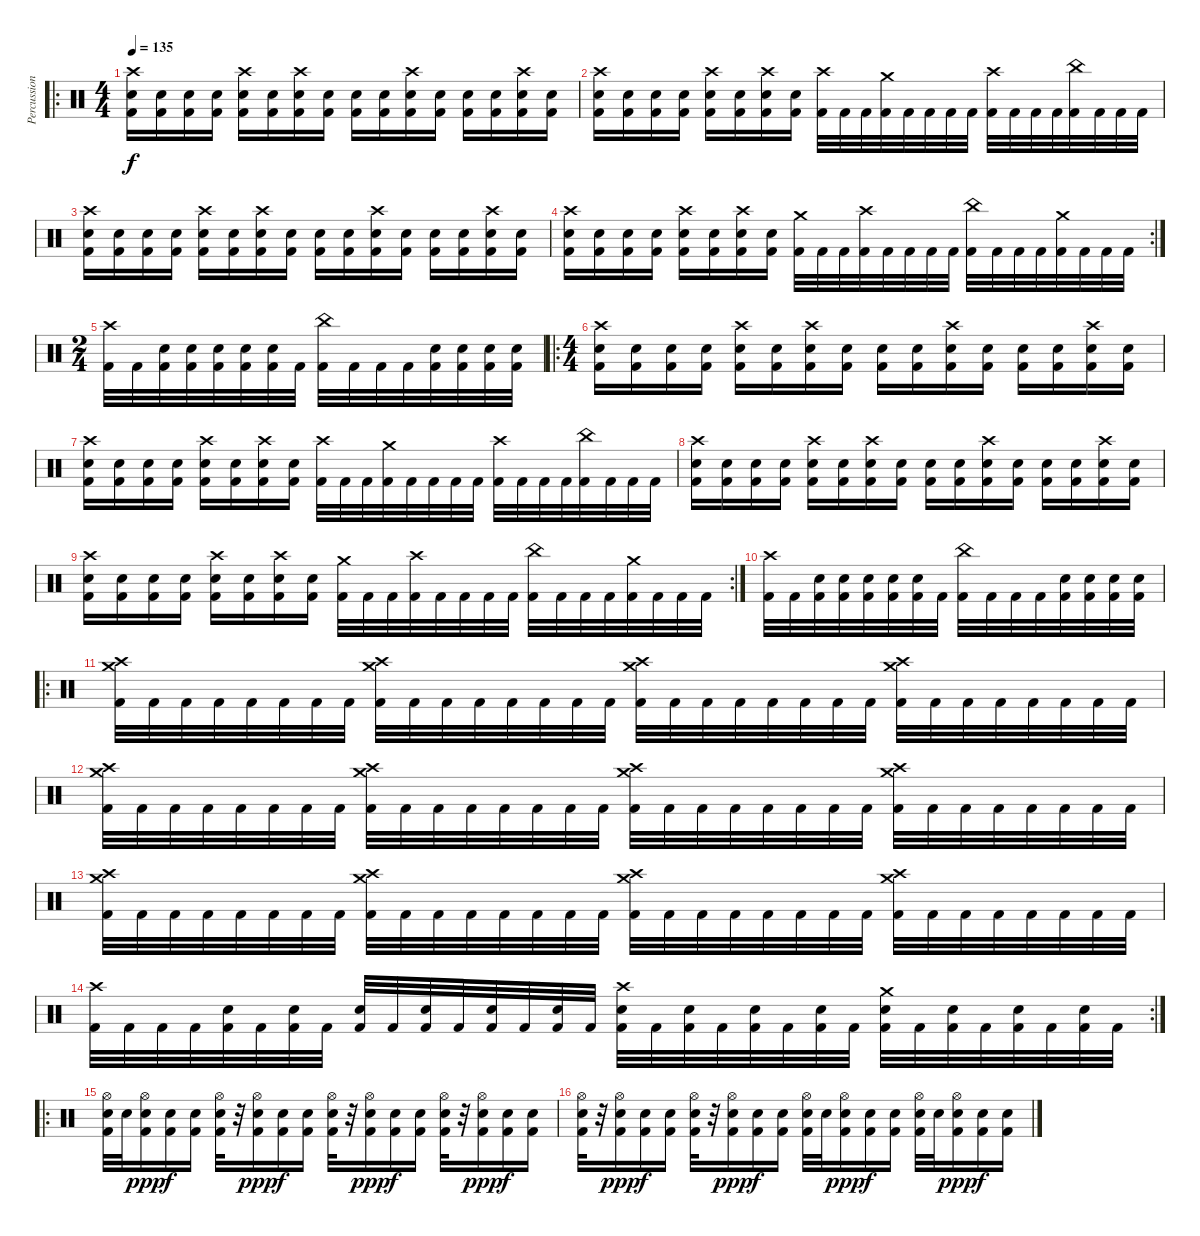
\track ("Percussion" "Percussion") {instrument percussion}
\staff {score}
\articulation defaults
\ro
\ts (4 4)
\tempo 135
\clef neutral
\ks c
("Crash high (hit)" "Electric Snare (hit)" "Kick (hit) 2").16{dy f} ("Electric Snare (hit)" "Kick (hit) 2").16 ("Electric Snare (hit)" "Kick (hit) 2").16 ("Electric Snare (hit)" "Kick (hit) 2").16 ("Crash high (hit)" "Electric Snare (hit)" "Kick (hit) 2").16 ("Electric Snare (hit)" "Kick (hit) 2").16 ("Crash high (hit)" "Electric Snare (hit)" "Kick (hit) 2").16 ("Electric Snare (hit)" "Kick (hit) 2").16 ("Electric Snare (hit)" "Kick (hit) 2").16 ("Electric Snare (hit)" "Kick (hit) 2").16 ("Crash high (hit)" "Electric Snare (hit)" "Kick (hit) 2").16 ("Electric Snare (hit)" "Kick (hit) 2").16 ("Electric Snare (hit)" "Kick (hit) 2").16 ("Electric Snare (hit)" "Kick (hit) 2").16 ("Crash high (hit)" "Electric Snare (hit)" "Kick (hit) 2").16 ("Electric Snare (hit)" "Kick (hit) 2").16 |
("Crash high (hit)" "Electric Snare (hit)" "Kick (hit) 2").16 ("Electric Snare (hit)" "Kick (hit) 2").16 ("Electric Snare (hit)" "Kick (hit) 2").16 ("Electric Snare (hit)" "Kick (hit) 2").16 ("Crash high (hit)" "Electric Snare (hit)" "Kick (hit) 2").16 ("Electric Snare (hit)" "Kick (hit) 2").16 ("Crash high (hit)" "Electric Snare (hit)" "Kick (hit) 2").16 ("Electric Snare (hit)" "Kick (hit) 2").16 ("Crash high (hit)" "Kick (hit) 2").32 "Kick (hit) 2".32 "Kick (hit) 2".32 ("Crash medium (hit)" "Kick (hit) 2").32 "Kick (hit) 2".32 "Kick (hit) 2".32 "Kick (hit) 2".32 "Kick (hit) 2".32 ("Crash high (hit)" "Kick (hit) 2").32 "Kick (hit) 2".32 "Kick (hit) 2".32 "Kick (hit) 2".32 ("China (hit)" "Kick (hit) 2").32 "Kick (hit) 2".32 "Kick (hit) 2".32 "Kick (hit) 2".32 |
("Crash high (hit)" "Electric Snare (hit)" "Kick (hit) 2").16 ("Electric Snare (hit)" "Kick (hit) 2").16 ("Electric Snare (hit)" "Kick (hit) 2").16 ("Electric Snare (hit)" "Kick (hit) 2").16 ("Crash high (hit)" "Electric Snare (hit)" "Kick (hit) 2").16 ("Electric Snare (hit)" "Kick (hit) 2").16 ("Crash high (hit)" "Electric Snare (hit)" "Kick (hit) 2").16 ("Electric Snare (hit)" "Kick (hit) 2").16 ("Electric Snare (hit)" "Kick (hit) 2").16 ("Electric Snare (hit)" "Kick (hit) 2").16 ("Crash high (hit)" "Electric Snare (hit)" "Kick (hit) 2").16 ("Electric Snare (hit)" "Kick (hit) 2").16 ("Electric Snare (hit)" "Kick (hit) 2").16 ("Electric Snare (hit)" "Kick (hit) 2").16 ("Crash high (hit)" "Electric Snare (hit)" "Kick (hit) 2").16 ("Electric Snare (hit)" "Kick (hit) 2").16 |
\rc 2
("Crash high (hit)" "Electric Snare (hit)" "Kick (hit) 2").16 ("Electric Snare (hit)" "Kick (hit) 2").16 ("Electric Snare (hit)" "Kick (hit) 2").16 ("Electric Snare (hit)" "Kick (hit) 2").16 ("Crash high (hit)" "Electric Snare (hit)" "Kick (hit) 2").16 ("Electric Snare (hit)" "Kick (hit) 2").16 ("Crash high (hit)" "Electric Snare (hit)" "Kick (hit) 2").16 ("Electric Snare (hit)" "Kick (hit) 2").16 ("Crash medium (hit)" "Kick (hit) 2").32 "Kick (hit) 2".32 "Kick (hit) 2".32 ("Crash high (hit)" "Kick (hit) 2").32 "Kick (hit) 2".32 "Kick (hit) 2".32 "Kick (hit) 2".32 "Kick (hit) 2".32 ("China (hit)" "Kick (hit) 2").32 "Kick (hit) 2".32 "Kick (hit) 2".32 "Kick (hit) 2".32 ("Crash medium (hit)" "Kick (hit) 2").32 "Kick (hit) 2".32 "Kick (hit) 2".32 "Kick (hit) 2".32 |
\ts (2 4)
("Crash high (hit)" "Kick (hit) 2").32 "Kick (hit) 2".32 ("Electric Snare (hit)" "Kick (hit) 2").32 ("Electric Snare (hit)" "Kick (hit) 2").32 ("Electric Snare (hit)" "Kick (hit) 2").32 ("Electric Snare (hit)" "Kick (hit) 2").32 ("Electric Snare (hit)" "Kick (hit) 2").32 "Kick (hit) 2".32 ("China (hit)" "Kick (hit) 2").32 "Kick (hit) 2".32 "Kick (hit) 2".32 "Kick (hit) 2".32 ("Electric Snare (hit)" "Kick (hit) 2").32 ("Electric Snare (hit)" "Kick (hit) 2").32 ("Electric Snare (hit)" "Kick (hit) 2").32 ("Electric Snare (hit)" "Kick (hit) 2").32 |
\ro
\ts (4 4)
("Crash high (hit)" "Electric Snare (hit)" "Kick (hit) 2").16 ("Electric Snare (hit)" "Kick (hit) 2").16 ("Electric Snare (hit)" "Kick (hit) 2").16 ("Electric Snare (hit)" "Kick (hit) 2").16 ("Crash high (hit)" "Electric Snare (hit)" "Kick (hit) 2").16 ("Electric Snare (hit)" "Kick (hit) 2").16 ("Crash high (hit)" "Electric Snare (hit)" "Kick (hit) 2").16 ("Electric Snare (hit)" "Kick (hit) 2").16 ("Electric Snare (hit)" "Kick (hit) 2").16 ("Electric Snare (hit)" "Kick (hit) 2").16 ("Crash high (hit)" "Electric Snare (hit)" "Kick (hit) 2").16 ("Electric Snare (hit)" "Kick (hit) 2").16 ("Electric Snare (hit)" "Kick (hit) 2").16 ("Electric Snare (hit)" "Kick (hit) 2").16 ("Crash high (hit)" "Electric Snare (hit)" "Kick (hit) 2").16 ("Electric Snare (hit)" "Kick (hit) 2").16 |
("Crash high (hit)" "Electric Snare (hit)" "Kick (hit) 2").16 ("Electric Snare (hit)" "Kick (hit) 2").16 ("Electric Snare (hit)" "Kick (hit) 2").16 ("Electric Snare (hit)" "Kick (hit) 2").16 ("Crash high (hit)" "Electric Snare (hit)" "Kick (hit) 2").16 ("Electric Snare (hit)" "Kick (hit) 2").16 ("Crash high (hit)" "Electric Snare (hit)" "Kick (hit) 2").16 ("Electric Snare (hit)" "Kick (hit) 2").16 ("Crash high (hit)" "Kick (hit) 2").32 "Kick (hit) 2".32 "Kick (hit) 2".32 ("Crash medium (hit)" "Kick (hit) 2").32 "Kick (hit) 2".32 "Kick (hit) 2".32 "Kick (hit) 2".32 "Kick (hit) 2".32 ("Crash high (hit)" "Kick (hit) 2").32 "Kick (hit) 2".32 "Kick (hit) 2".32 "Kick (hit) 2".32 ("China (hit)" "Kick (hit) 2").32 "Kick (hit) 2".32 "Kick (hit) 2".32 "Kick (hit) 2".32 |
("Crash high (hit)" "Electric Snare (hit)" "Kick (hit) 2").16 ("Electric Snare (hit)" "Kick (hit) 2").16 ("Electric Snare (hit)" "Kick (hit) 2").16 ("Electric Snare (hit)" "Kick (hit) 2").16 ("Crash high (hit)" "Electric Snare (hit)" "Kick (hit) 2").16 ("Electric Snare (hit)" "Kick (hit) 2").16 ("Crash high (hit)" "Electric Snare (hit)" "Kick (hit) 2").16 ("Electric Snare (hit)" "Kick (hit) 2").16 ("Electric Snare (hit)" "Kick (hit) 2").16 ("Electric Snare (hit)" "Kick (hit) 2").16 ("Crash high (hit)" "Electric Snare (hit)" "Kick (hit) 2").16 ("Electric Snare (hit)" "Kick (hit) 2").16 ("Electric Snare (hit)" "Kick (hit) 2").16 ("Electric Snare (hit)" "Kick (hit) 2").16 ("Crash high (hit)" "Electric Snare (hit)" "Kick (hit) 2").16 ("Electric Snare (hit)" "Kick (hit) 2").16 |
\rc 2
("Crash high (hit)" "Electric Snare (hit)" "Kick (hit) 2").16 ("Electric Snare (hit)" "Kick (hit) 2").16 ("Electric Snare (hit)" "Kick (hit) 2").16 ("Electric Snare (hit)" "Kick (hit) 2").16 ("Crash high (hit)" "Electric Snare (hit)" "Kick (hit) 2").16 ("Electric Snare (hit)" "Kick (hit) 2").16 ("Crash high (hit)" "Electric Snare (hit)" "Kick (hit) 2").16 ("Electric Snare (hit)" "Kick (hit) 2").16 ("Crash medium (hit)" "Kick (hit) 2").32 "Kick (hit) 2".32 "Kick (hit) 2".32 ("Crash high (hit)" "Kick (hit) 2").32 "Kick (hit) 2".32 "Kick (hit) 2".32 "Kick (hit) 2".32 "Kick (hit) 2".32 ("China (hit)" "Kick (hit) 2").32 "Kick (hit) 2".32 "Kick (hit) 2".32 "Kick (hit) 2".32 ("Crash medium (hit)" "Kick (hit) 2").32 "Kick (hit) 2".32 "Kick (hit) 2".32 "Kick (hit) 2".32 |
("Crash high (hit)" "Kick (hit) 2").32 "Kick (hit) 2".32 ("Electric Snare (hit)" "Kick (hit) 2").32 ("Electric Snare (hit)" "Kick (hit) 2").32 ("Electric Snare (hit)" "Kick (hit) 2").32 ("Electric Snare (hit)" "Kick (hit) 2").32 ("Electric Snare (hit)" "Kick (hit) 2").32 "Kick (hit) 2".32 ("China (hit)" "Kick (hit) 2").32 "Kick (hit) 2".32 "Kick (hit) 2".32 "Kick (hit) 2".32 ("Electric Snare (hit)" "Kick (hit) 2").32 ("Electric Snare (hit)" "Kick (hit) 2").32 ("Electric Snare (hit)" "Kick (hit) 2").32 ("Electric Snare (hit)" "Kick (hit) 2").32 |
\ro
("Crash high (hit)" "Crash medium (hit)" "Kick (hit) 2").32 "Kick (hit) 2".32 "Kick (hit) 2".32 "Kick (hit) 2".32 "Kick (hit) 2".32 "Kick (hit) 2".32 "Kick (hit) 2".32 "Kick (hit) 2".32 ("Crash medium (hit)" "Crash high (hit)" "Kick (hit) 2").32 "Kick (hit) 2".32 "Kick (hit) 2".32 "Kick (hit) 2".32 "Kick (hit) 2".32 "Kick (hit) 2".32 "Kick (hit) 2".32 "Kick (hit) 2".32 ("Crash high (hit)" "Crash medium (hit)" "Kick (hit) 2").32 "Kick (hit) 2".32 "Kick (hit) 2".32 "Kick (hit) 2".32 "Kick (hit) 2".32 "Kick (hit) 2".32 "Kick (hit) 2".32 "Kick (hit) 2".32 ("Crash medium (hit)" "Crash high (hit)" "Kick (hit) 2").32 "Kick (hit) 2".32 "Kick (hit) 2".32 "Kick (hit) 2".32 "Kick (hit) 2".32 "Kick (hit) 2".32 "Kick (hit) 2".32 "Kick (hit) 2".32 |
("Crash high (hit)" "Crash medium (hit)" "Kick (hit) 2").32 "Kick (hit) 2".32 "Kick (hit) 2".32 "Kick (hit) 2".32 "Kick (hit) 2".32 "Kick (hit) 2".32 "Kick (hit) 2".32 "Kick (hit) 2".32 ("Crash medium (hit)" "Crash high (hit)" "Kick (hit) 2").32 "Kick (hit) 2".32 "Kick (hit) 2".32 "Kick (hit) 2".32 "Kick (hit) 2".32 "Kick (hit) 2".32 "Kick (hit) 2".32 "Kick (hit) 2".32 ("Crash high (hit)" "Crash medium (hit)" "Kick (hit) 2").32 "Kick (hit) 2".32 "Kick (hit) 2".32 "Kick (hit) 2".32 "Kick (hit) 2".32 "Kick (hit) 2".32 "Kick (hit) 2".32 "Kick (hit) 2".32 ("Crash medium (hit)" "Crash high (hit)" "Kick (hit) 2").32 "Kick (hit) 2".32 "Kick (hit) 2".32 "Kick (hit) 2".32 "Kick (hit) 2".32 "Kick (hit) 2".32 "Kick (hit) 2".32 "Kick (hit) 2".32 |
("Crash high (hit)" "Crash medium (hit)" "Kick (hit) 2").32 "Kick (hit) 2".32 "Kick (hit) 2".32 "Kick (hit) 2".32 "Kick (hit) 2".32 "Kick (hit) 2".32 "Kick (hit) 2".32 "Kick (hit) 2".32 ("Crash medium (hit)" "Crash high (hit)" "Kick (hit) 2").32 "Kick (hit) 2".32 "Kick (hit) 2".32 "Kick (hit) 2".32 "Kick (hit) 2".32 "Kick (hit) 2".32 "Kick (hit) 2".32 "Kick (hit) 2".32 ("Crash high (hit)" "Crash medium (hit)" "Kick (hit) 2").32 "Kick (hit) 2".32 "Kick (hit) 2".32 "Kick (hit) 2".32 "Kick (hit) 2".32 "Kick (hit) 2".32 "Kick (hit) 2".32 "Kick (hit) 2".32 ("Crash medium (hit)" "Crash high (hit)" "Kick (hit) 2").32 "Kick (hit) 2".32 "Kick (hit) 2".32 "Kick (hit) 2".32 "Kick (hit) 2".32 "Kick (hit) 2".32 "Kick (hit) 2".32 "Kick (hit) 2".32 |
\rc 2
("Crash high (hit)" "Kick (hit) 2").32 "Kick (hit) 2".32 "Kick (hit) 2".32 "Kick (hit) 2".32 ("Electric Snare (hit)" "Kick (hit) 2").32 "Kick (hit) 2".32 ("Electric Snare (hit)" "Kick (hit) 2").32 "Kick (hit) 2".32 ("Electric Snare (hit)" "Kick (hit) 2").32 "Kick (hit) 2".32 ("Electric Snare (hit)" "Kick (hit) 2").32 "Kick (hit) 2".32 ("Electric Snare (hit)" "Kick (hit) 2").32 "Kick (hit) 2".32 ("Electric Snare (hit)" "Kick (hit) 2").32 "Kick (hit) 2".32 ("Crash high (hit)" "Electric Snare (hit)" "Kick (hit) 2").32 "Kick (hit) 2".32 ("Electric Snare (hit)" "Kick (hit) 2").32 "Kick (hit) 2".32 ("Electric Snare (hit)" "Kick (hit) 2").32 "Kick (hit) 2".32 ("Electric Snare (hit)" "Kick (hit) 2").32 "Kick (hit) 2".32 ("Crash medium (hit)" "Electric Snare (hit)" "Kick (hit) 2").32 "Kick (hit) 2".32 ("Electric Snare (hit)" "Kick (hit) 2").32 "Kick (hit) 2".32 ("Electric Snare (hit)" "Kick (hit) 2").32 "Kick (hit) 2".32 ("Electric Snare (hit)" "Kick (hit) 2").32 "Kick (hit) 2".32 |
\ro
("Hi-Hat (open)" "Electric Snare (hit)" "Kick (hit) 2").32 "Electric Snare (hit)".32 ("Hi-Hat (open)" "Electric Snare (hit)" "Kick (hit) 2").16{dy ppp} ("Electric Snare (hit)" "Kick (hit) 2").16{dy f} ("Electric Snare (hit)" "Kick (hit) 2").16 ("Hi-Hat (open)" "Electric Snare (hit)" "Kick (hit) 2").32 r.32 ("Hi-Hat (open)" "Electric Snare (hit)" "Kick (hit) 2").16{dy ppp} ("Electric Snare (hit)" "Kick (hit) 2").16{dy f} ("Electric Snare (hit)" "Kick (hit) 2").16 ("Hi-Hat (open)" "Electric Snare (hit)" "Kick (hit) 2").32 r.32 ("Hi-Hat (open)" "Electric Snare (hit)" "Kick (hit) 2").16{dy ppp} ("Electric Snare (hit)" "Kick (hit) 2").16{dy f} ("Electric Snare (hit)" "Kick (hit) 2").16 ("Hi-Hat (open)" "Electric Snare (hit)" "Kick (hit) 2").32 r.32 ("Hi-Hat (open)" "Electric Snare (hit)" "Kick (hit) 2").16{dy ppp} ("Electric Snare (hit)" "Kick (hit) 2").16{dy f} ("Electric Snare (hit)" "Kick (hit) 2").16 |
("Hi-Hat (open)" "Electric Snare (hit)" "Kick (hit) 2").32 r.32 ("Hi-Hat (open)" "Electric Snare (hit)" "Kick (hit) 2").16{dy ppp} ("Electric Snare (hit)" "Kick (hit) 2").16{dy f} ("Electric Snare (hit)" "Kick (hit) 2").16 ("Hi-Hat (open)" "Electric Snare (hit)" "Kick (hit) 2").32 r.32 ("Hi-Hat (open)" "Electric Snare (hit)" "Kick (hit) 2").16{dy ppp} ("Electric Snare (hit)" "Kick (hit) 2").16{dy f} ("Electric Snare (hit)" "Kick (hit) 2").16 ("Hi-Hat (open)" "Electric Snare (hit)" "Kick (hit) 2").32 "Electric Snare (hit)".32 ("Hi-Hat (open)" "Electric Snare (hit)" "Kick (hit) 2").16{dy ppp} ("Electric Snare (hit)" "Kick (hit) 2").16{dy f} ("Electric Snare (hit)" "Kick (hit) 2").16 ("Hi-Hat (open)" "Electric Snare (hit)" "Kick (hit) 2").32 "Electric Snare (hit)".32 ("Hi-Hat (open)" "Electric Snare (hit)" "Kick (hit) 2").16{dy ppp} ("Electric Snare (hit)" "Kick (hit) 2").16{dy f} ("Electric Snare (hit)" "Kick (hit) 2").16
